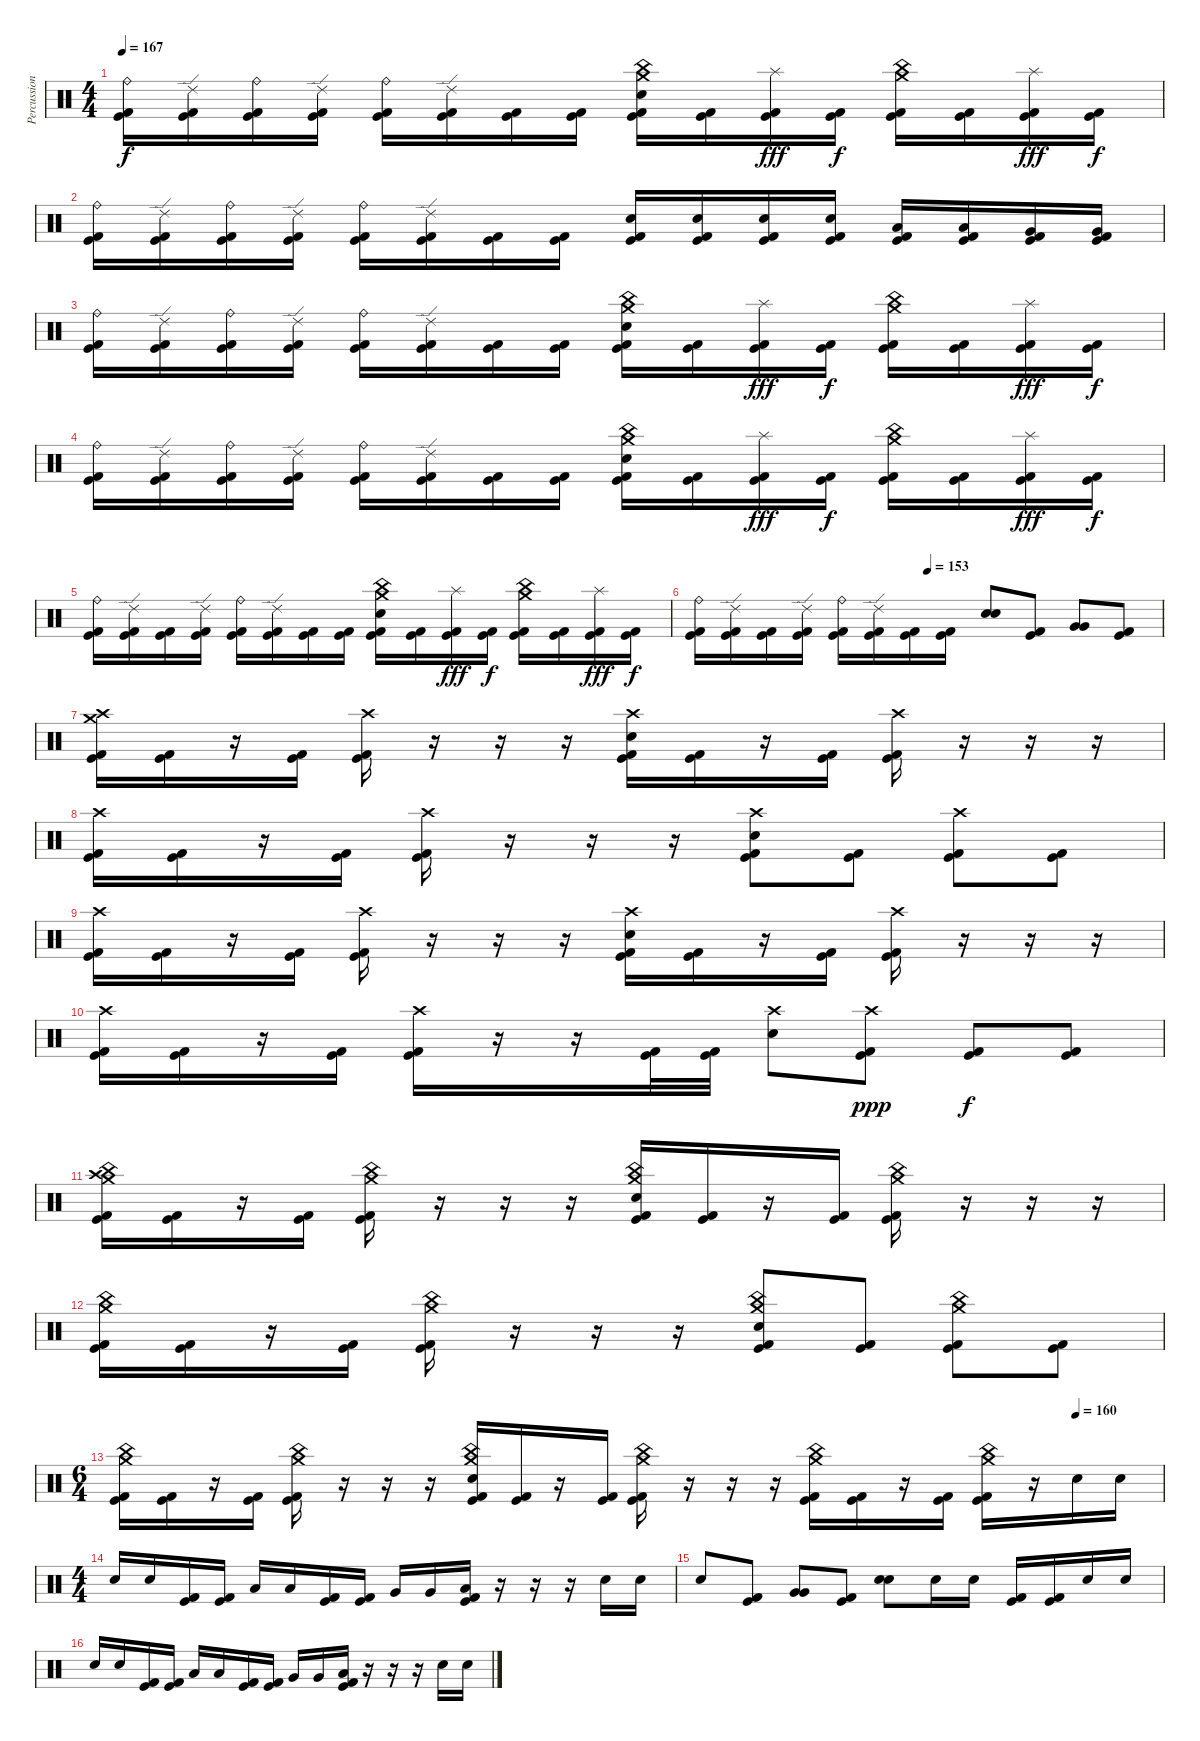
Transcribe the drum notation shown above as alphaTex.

\track ("Percussion" "Percussion") {instrument percussion}
\staff {score}
\articulation defaults
\ts (4 4)
\tempo 167
\clef neutral
\ks c
("Ride (bell)" "Kick (hit)" "Kick (hit) 2").16{dy f} ("Ride (edge) 2" "Kick (hit)" "Kick (hit) 2").16 ("Ride (bell)" "Kick (hit)" "Kick (hit) 2").16 ("Ride (edge) 2" "Kick (hit)" "Kick (hit) 2").16 ("Ride (bell)" "Kick (hit)" "Kick (hit) 2").16 ("Ride (edge) 2" "Kick (hit)" "Kick (hit) 2").16 ("Kick (hit)" "Kick (hit) 2").16 ("Kick (hit)" "Kick (hit) 2").16 ("Crash medium (hit)" "China (hit)" "Electric Snare (hit)" "Kick (hit)" "Kick (hit) 2").16 ("Kick (hit)" "Kick (hit) 2").16 ("Splash (hit)" "Kick (hit)" "Kick (hit) 2").16{dy fff} ("Kick (hit)" "Kick (hit) 2").16{dy f} ("Crash medium (hit)" "China (hit)" "Kick (hit)" "Kick (hit) 2").16 ("Kick (hit)" "Kick (hit) 2").16 ("Splash (hit)" "Kick (hit)" "Kick (hit) 2").16{dy fff} ("Kick (hit)" "Kick (hit) 2").16{dy f} |
("Ride (bell)" "Kick (hit)" "Kick (hit) 2").16 ("Ride (edge) 2" "Kick (hit)" "Kick (hit) 2").16 ("Ride (bell)" "Kick (hit)" "Kick (hit) 2").16 ("Ride (edge) 2" "Kick (hit)" "Kick (hit) 2").16 ("Ride (bell)" "Kick (hit)" "Kick (hit) 2").16 ("Ride (edge) 2" "Kick (hit)" "Kick (hit) 2").16 ("Kick (hit)" "Kick (hit) 2").16 ("Kick (hit)" "Kick (hit) 2").16 ("Electric Snare (hit)" "Kick (hit)" "Kick (hit) 2").16 ("Electric Snare (hit)" "Kick (hit)" "Kick (hit) 2").16 ("Electric Snare (hit)" "Kick (hit)" "Kick (hit) 2").16 ("Electric Snare (hit)" "Kick (hit)" "Kick (hit) 2").16 ("Low Tom (hit)" "Kick (hit)" "Kick (hit) 2").16 ("Low Tom (hit)" "Kick (hit)" "Kick (hit) 2").16 ("Very Low Tom (hit)" "Kick (hit)" "Kick (hit) 2").16 ("Very Low Tom (hit)" "Kick (hit)" "Kick (hit) 2").16 |
("Ride (bell)" "Kick (hit)" "Kick (hit) 2").16 ("Ride (edge) 2" "Kick (hit)" "Kick (hit) 2").16 ("Ride (bell)" "Kick (hit)" "Kick (hit) 2").16 ("Ride (edge) 2" "Kick (hit)" "Kick (hit) 2").16 ("Ride (bell)" "Kick (hit)" "Kick (hit) 2").16 ("Ride (edge) 2" "Kick (hit)" "Kick (hit) 2").16 ("Kick (hit)" "Kick (hit) 2").16 ("Kick (hit)" "Kick (hit) 2").16 ("Crash medium (hit)" "China (hit)" "Electric Snare (hit)" "Kick (hit)" "Kick (hit) 2").16 ("Kick (hit)" "Kick (hit) 2").16 ("Splash (hit)" "Kick (hit)" "Kick (hit) 2").16{dy fff} ("Kick (hit)" "Kick (hit) 2").16{dy f} ("Crash medium (hit)" "China (hit)" "Kick (hit)" "Kick (hit) 2").16 ("Kick (hit)" "Kick (hit) 2").16 ("Splash (hit)" "Kick (hit)" "Kick (hit) 2").16{dy fff} ("Kick (hit)" "Kick (hit) 2").16{dy f} |
("Ride (bell)" "Kick (hit)" "Kick (hit) 2").16 ("Ride (edge) 2" "Kick (hit)" "Kick (hit) 2").16 ("Ride (bell)" "Kick (hit)" "Kick (hit) 2").16 ("Ride (edge) 2" "Kick (hit)" "Kick (hit) 2").16 ("Ride (bell)" "Kick (hit)" "Kick (hit) 2").16 ("Ride (edge) 2" "Kick (hit)" "Kick (hit) 2").16 ("Kick (hit)" "Kick (hit) 2").16 ("Kick (hit)" "Kick (hit) 2").16 ("Crash medium (hit)" "China (hit)" "Electric Snare (hit)" "Kick (hit)" "Kick (hit) 2").16 ("Kick (hit)" "Kick (hit) 2").16 ("Splash (hit)" "Kick (hit)" "Kick (hit) 2").16{dy fff} ("Kick (hit)" "Kick (hit) 2").16{dy f} ("Crash medium (hit)" "China (hit)" "Kick (hit)" "Kick (hit) 2").16 ("Kick (hit)" "Kick (hit) 2").16 ("Splash (hit)" "Kick (hit)" "Kick (hit) 2").16{dy fff} ("Kick (hit)" "Kick (hit) 2").16{dy f} |
("Ride (bell)" "Kick (hit)" "Kick (hit) 2").16 ("Ride (edge) 2" "Kick (hit)" "Kick (hit) 2").16 ("Kick (hit)" "Kick (hit) 2").16 ("Ride (edge) 2" "Kick (hit)" "Kick (hit) 2").16 ("Ride (bell)" "Kick (hit)" "Kick (hit) 2").16 ("Ride (edge) 2" "Kick (hit)" "Kick (hit) 2").16 ("Kick (hit)" "Kick (hit) 2").16 ("Kick (hit)" "Kick (hit) 2").16 ("Crash medium (hit)" "China (hit)" "Electric Snare (hit)" "Kick (hit)" "Kick (hit) 2").16 ("Kick (hit)" "Kick (hit) 2").16 ("Splash (hit)" "Kick (hit)" "Kick (hit) 2").16{dy fff} ("Kick (hit)" "Kick (hit) 2").16{dy f} ("Crash medium (hit)" "China (hit)" "Kick (hit)" "Kick (hit) 2").16 ("Kick (hit)" "Kick (hit) 2").16 ("Splash (hit)" "Kick (hit)" "Kick (hit) 2").16{dy fff} ("Kick (hit)" "Kick (hit) 2").16{dy f} |
\tempo (153 0.5)
("Ride (bell)" "Kick (hit)" "Kick (hit) 2").16 ("Ride (edge) 2" "Kick (hit)" "Kick (hit) 2").16 ("Kick (hit)" "Kick (hit) 2").16 ("Ride (edge) 2" "Kick (hit)" "Kick (hit) 2").16 ("Ride (bell)" "Kick (hit)" "Kick (hit) 2").16 ("Ride (edge) 2" "Kick (hit)" "Kick (hit) 2").16 ("Kick (hit)" "Kick (hit) 2").16 ("Kick (hit)" "Kick (hit) 2").16 ("Electric Snare (hit)" "Electric Snare (hit)").8{bu 480} ("Kick (hit)" "Kick (hit) 2").8 ("Very Low Tom (hit)" "Very Low Tom (hit)").8{bu 480} ("Kick (hit)" "Kick (hit) 2").8 |
("Crash medium (hit)" "Crash high (hit)" "Kick (hit)" "Kick (hit) 2").16 ("Kick (hit)" "Kick (hit) 2").16 r.16 ("Kick (hit)" "Kick (hit) 2").16 ("Crash high (hit)" "Kick (hit)" "Kick (hit) 2").16 r.16 r.16 r.16 ("Crash high (hit)" "Electric Snare (hit)" "Kick (hit)" "Kick (hit) 2").16 ("Kick (hit)" "Kick (hit) 2").16 r.16 ("Kick (hit)" "Kick (hit) 2").16 ("Crash high (hit)" "Kick (hit)" "Kick (hit) 2").16 r.16 r.16 r.16 |
("Crash high (hit)" "Kick (hit)" "Kick (hit) 2").16 ("Kick (hit)" "Kick (hit) 2").16 r.16 ("Kick (hit)" "Kick (hit) 2").16 ("Crash high (hit)" "Kick (hit)" "Kick (hit) 2").16 r.16 r.16 r.16 ("Crash high (hit)" "Electric Snare (hit)" "Kick (hit)" "Kick (hit) 2").8 ("Kick (hit)" "Kick (hit) 2").8 ("Crash high (hit)" "Kick (hit)" "Kick (hit) 2").8 ("Kick (hit)" "Kick (hit) 2").8 |
("Crash high (hit)" "Kick (hit)" "Kick (hit) 2").16 ("Kick (hit)" "Kick (hit) 2").16 r.16 ("Kick (hit)" "Kick (hit) 2").16 ("Crash high (hit)" "Kick (hit)" "Kick (hit) 2").16 r.16 r.16 r.16 ("Crash high (hit)" "Electric Snare (hit)" "Kick (hit)" "Kick (hit) 2").16 ("Kick (hit)" "Kick (hit) 2").16 r.16 ("Kick (hit)" "Kick (hit) 2").16 ("Crash high (hit)" "Kick (hit)" "Kick (hit) 2").16 r.16 r.16 r.16 |
("Crash high (hit)" "Kick (hit)" "Kick (hit) 2").16 ("Kick (hit)" "Kick (hit) 2").16 r.16 ("Kick (hit)" "Kick (hit) 2").16 ("Crash high (hit)" "Kick (hit)" "Kick (hit) 2").16 r.16 r.16 ("Kick (hit)" "Kick (hit) 2").32 ("Kick (hit)" "Kick (hit) 2").32 ("Crash high (hit)" "Electric Snare (hit)").8 ("Crash high (hit)" "Kick (hit)" "Kick (hit) 2").8{dy ppp} ("Kick (hit)" "Kick (hit) 2").8{dy f} ("Kick (hit)" "Kick (hit) 2").8 |
("Crash medium (hit)" "China (hit)" "Crash high (hit)" "Kick (hit)" "Kick (hit) 2").16 ("Kick (hit)" "Kick (hit) 2").16 r.16 ("Kick (hit)" "Kick (hit) 2").16 ("Crash medium (hit)" "China (hit)" "Kick (hit)" "Kick (hit) 2").16 r.16 r.16 r.16 ("Crash medium (hit)" "China (hit)" "Electric Snare (hit)" "Kick (hit)" "Kick (hit) 2").16 ("Kick (hit)" "Kick (hit) 2").16 r.16 ("Kick (hit)" "Kick (hit) 2").16 ("Crash medium (hit)" "China (hit)" "Kick (hit)" "Kick (hit) 2").16 r.16 r.16 r.16 |
("Crash medium (hit)" "China (hit)" "Kick (hit)" "Kick (hit) 2").16 ("Kick (hit)" "Kick (hit) 2").16 r.16 ("Kick (hit)" "Kick (hit) 2").16 ("Crash medium (hit)" "China (hit)" "Kick (hit)" "Kick (hit) 2").16 r.16 r.16 r.16 ("Crash medium (hit)" "China (hit)" "Electric Snare (hit)" "Kick (hit)" "Kick (hit) 2").8 ("Kick (hit)" "Kick (hit) 2").8 ("Crash medium (hit)" "China (hit)" "Kick (hit)" "Kick (hit) 2").8 ("Kick (hit)" "Kick (hit) 2").8 |
\ts (6 4)
\tempo (160 0.9166666666666666)
("Crash medium (hit)" "China (hit)" "Kick (hit)" "Kick (hit) 2").16 ("Kick (hit)" "Kick (hit) 2").16 r.16 ("Kick (hit)" "Kick (hit) 2").16 ("Crash medium (hit)" "China (hit)" "Kick (hit)" "Kick (hit) 2").16 r.16 r.16 r.16 ("Crash medium (hit)" "China (hit)" "Electric Snare (hit)" "Kick (hit)" "Kick (hit) 2").16 ("Kick (hit)" "Kick (hit) 2").16 r.16 ("Kick (hit)" "Kick (hit) 2").16 ("Crash medium (hit)" "China (hit)" "Kick (hit)" "Kick (hit) 2").16 r.16 r.16 r.16 ("Crash medium (hit)" "China (hit)" "Kick (hit)" "Kick (hit) 2").16 ("Kick (hit)" "Kick (hit) 2").16 r.16 ("Kick (hit)" "Kick (hit) 2").16 ("Crash medium (hit)" "China (hit)" "Kick (hit)" "Kick (hit) 2").16 r.16 "Electric Snare (hit)".16 "Electric Snare (hit)".16 |
\ts (4 4)
"Electric Snare (hit)".16 "Electric Snare (hit)".16 ("Kick (hit)" "Kick (hit) 2").16 ("Kick (hit)" "Kick (hit) 2").16 "Low Tom (hit)".16 "Low Tom (hit)".16 ("Kick (hit)" "Kick (hit) 2").16 ("Kick (hit)" "Kick (hit) 2").16 "Very Low Tom (hit)".16 "Very Low Tom (hit)".16 ("Low Floor Tom (hit)" "Kick (hit)" "Kick (hit) 2").16 r.16 r.16 r.16 "Electric Snare (hit)".16 "Electric Snare (hit)".16 |
"Electric Snare (hit)".8 ("Kick (hit)" "Kick (hit) 2").8 ("Very Low Tom (hit)" "Very Low Tom (hit)").8{bu 480} ("Kick (hit)" "Kick (hit) 2").8 ("Electric Snare (hit)" "Electric Snare (hit)").8{bu 480} "Electric Snare (hit)".16 "Electric Snare (hit)".16 ("Kick (hit)" "Kick (hit) 2").16 ("Kick (hit)" "Kick (hit) 2").16 "Electric Snare (hit)".16 "Electric Snare (hit)".16 |
"Electric Snare (hit)".16 "Electric Snare (hit)".16 ("Kick (hit)" "Kick (hit) 2").16 ("Kick (hit)" "Kick (hit) 2").16 "Low Tom (hit)".16 "Low Tom (hit)".16 ("Kick (hit)" "Kick (hit) 2").16 ("Kick (hit)" "Kick (hit) 2").16 "Very Low Tom (hit)".16 "Very Low Tom (hit)".16 ("Low Floor Tom (hit)" "Kick (hit)" "Kick (hit) 2").16 r.16 r.16 r.16 "Electric Snare (hit)".16 "Electric Snare (hit)".16
